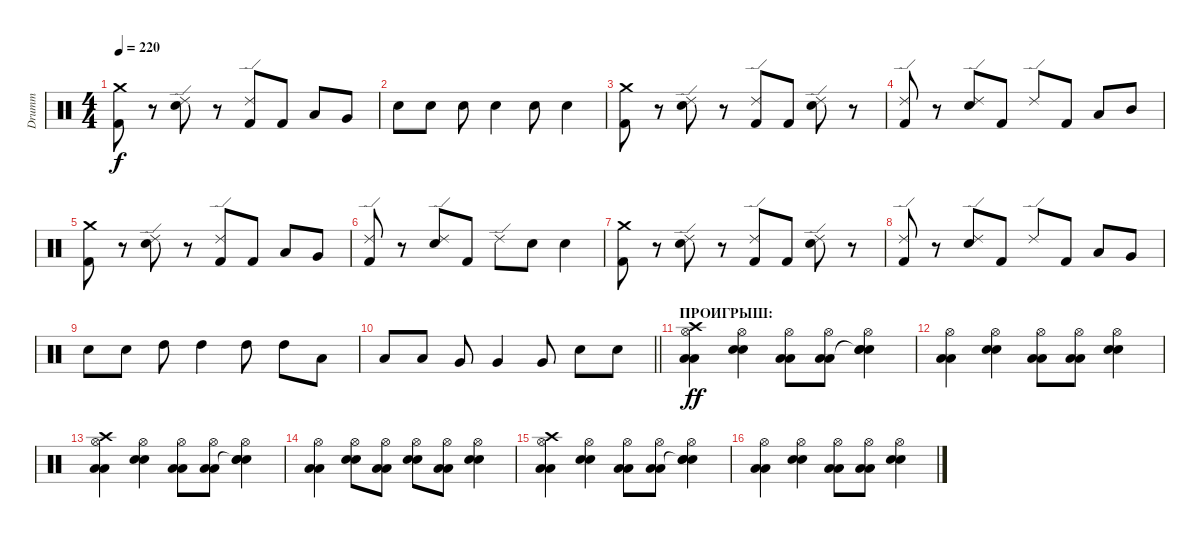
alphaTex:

\track ("Drumm" "Drumm") {instrument percussion}
\staff {score}
\articulation defaults
\ts (4 4)
\tempo 220
\clef neutral
\ks c
("Crash medium (hit)" "Kick (hit) 2").8{dy f} r.8 ("Ride (edge) 2" "Snare (hit) 2").8 r.8 ("Ride (edge) 2" "Kick (hit) 2").8 "Kick (hit) 2".8 "Low Tom (hit)".8 "Very Low Tom (hit)".8 |
"Snare (hit) 2".8 "Snare (hit) 2".8 "Snare (hit) 2".8 "Snare (hit) 2".4 "Snare (hit) 2".8 "Snare (hit) 2".4 |
("Crash medium (hit)" "Kick (hit) 2").8 r.8 ("Ride (edge) 2" "Snare (hit) 2").8 r.8 ("Ride (edge) 2" "Kick (hit) 2").8 "Kick (hit) 2".8 ("Ride (edge) 2" "Snare (hit) 2").8 r.8 |
("Ride (edge) 2" "Kick (hit) 2").8 r.8 ("Ride (edge) 2" "Snare (hit) 2").8 "Kick (hit) 2".8 "Ride (edge) 2".8 "Kick (hit) 2".8 "Low Tom (hit)".8 "Mid Tom (hit)".8 |
("Crash medium (hit)" "Kick (hit) 2").8 r.8 ("Ride (edge) 2" "Snare (hit) 2").8 r.8 ("Ride (edge) 2" "Kick (hit) 2").8 "Kick (hit) 2".8 "Low Tom (hit)".8 "Very Low Tom (hit)".8 |
("Ride (edge) 2" "Kick (hit) 2").8 r.8 ("Ride (edge) 2" "Snare (hit) 2").8 "Kick (hit) 2".8 "Ride (edge) 2".8 "Snare (hit) 2".8 "Snare (hit) 2".4 |
("Crash medium (hit)" "Kick (hit) 2").8 r.8 ("Ride (edge) 2" "Snare (hit) 2").8 r.8 ("Ride (edge) 2" "Kick (hit) 2").8 "Kick (hit) 2".8 ("Ride (edge) 2" "Snare (hit) 2").8 r.8 |
("Ride (edge) 2" "Kick (hit) 2").8 r.8 ("Ride (edge) 2" "Snare (hit) 2").8 "Kick (hit) 2".8 "Ride (edge) 2".8 "Kick (hit) 2".8 "Low Tom (hit)".8 "Very Low Tom (hit)".8 |
"Snare (hit) 2".8 "Snare (hit) 2".8 "High Tom (hit)".8 "High Tom (hit)".4 "High Tom (hit)".8 "High Tom (hit)".8 "Low Tom (hit)".8 |
\barLineRight lightlight "Low Tom (hit)".8 "Low Tom (hit)".8 "Very Low Tom (hit)".8 "Very Low Tom (hit)".4 "Very Low Tom (hit)".8 "Snare (hit) 2".8 "Snare (hit) 2".8
|
\section ("" "ПРОИГРЫШ:")
("Hi-Hat (open)" "Crash high (hit)" "Low Floor Tom (hit)" "Low Floor Tom (hit)").4{dy ff} ("Hi-Hat (open)" "Electric Snare (hit)" "Electric Snare (hit)").4 ("Hi-Hat (open)" "Low Floor Tom (hit)" "Low Floor Tom (hit)").8 ("Hi-Hat (open)" "Low Floor Tom (hit)" "Low Floor Tom (hit)").8 ("Hi-Hat (open)" "Snare (hit)"{t} "Electric Snare (hit)" "Electric Snare (hit)").4 |
("Hi-Hat (open)" "Low Floor Tom (hit)" "Low Floor Tom (hit)").4 ("Hi-Hat (open)" "Electric Snare (hit)" "Electric Snare (hit)").4 ("Hi-Hat (open)" "Low Floor Tom (hit)" "Low Floor Tom (hit)").8 ("Hi-Hat (open)" "Low Floor Tom (hit)" "Low Floor Tom (hit)").8 ("Hi-Hat (open)" "Electric Snare (hit)" "Electric Snare (hit)").4 |
("Hi-Hat (open)" "Crash high (hit)" "Low Floor Tom (hit)" "Low Floor Tom (hit)").4 ("Hi-Hat (open)" "Electric Snare (hit)" "Electric Snare (hit)").4 ("Hi-Hat (open)" "Low Floor Tom (hit)" "Low Floor Tom (hit)").8 ("Hi-Hat (open)" "Low Floor Tom (hit)" "Low Floor Tom (hit)").8 ("Hi-Hat (open)" "Snare (hit)"{t} "Electric Snare (hit)" "Electric Snare (hit)").4 |
("Hi-Hat (open)" "Low Floor Tom (hit)" "Low Floor Tom (hit)").4 ("Hi-Hat (open)" "Electric Snare (hit)" "Electric Snare (hit)").8 ("Hi-Hat (open)" "Low Floor Tom (hit)" "Low Floor Tom (hit)").8 ("Hi-Hat (open)" "Electric Snare (hit)" "Electric Snare (hit)").8 ("Hi-Hat (open)" "Low Floor Tom (hit)" "Low Floor Tom (hit)").8 ("Hi-Hat (open)" "Electric Snare (hit)" "Electric Snare (hit)").4 |
("Hi-Hat (open)" "Crash high (hit)" "Low Floor Tom (hit)" "Low Floor Tom (hit)").4 ("Hi-Hat (open)" "Electric Snare (hit)" "Electric Snare (hit)").4 ("Hi-Hat (open)" "Low Floor Tom (hit)" "Low Floor Tom (hit)").8 ("Hi-Hat (open)" "Low Floor Tom (hit)" "Low Floor Tom (hit)").8 ("Hi-Hat (open)" "Snare (hit)"{t} "Electric Snare (hit)" "Electric Snare (hit)").4 |
("Hi-Hat (open)" "Low Floor Tom (hit)" "Low Floor Tom (hit)").4 ("Hi-Hat (open)" "Electric Snare (hit)" "Electric Snare (hit)").4 ("Hi-Hat (open)" "Low Floor Tom (hit)" "Low Floor Tom (hit)").8 ("Hi-Hat (open)" "Low Floor Tom (hit)" "Low Floor Tom (hit)").8 ("Hi-Hat (open)" "Electric Snare (hit)" "Electric Snare (hit)").4
